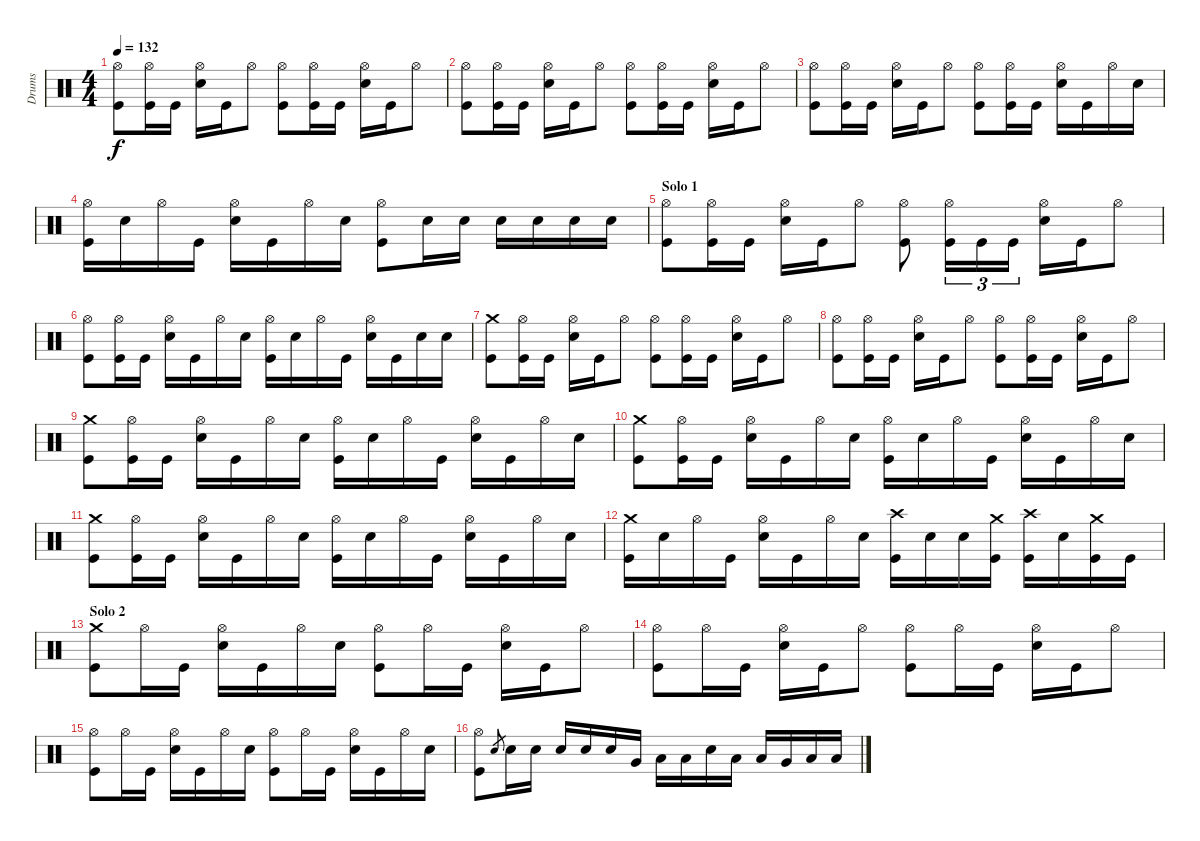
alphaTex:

\track ("Drums" "Drums") {instrument percussion}
\staff {score}
\articulation defaults
\ts (4 4)
\tempo 132
\clef neutral
\ks c
("Hi-Hat (open)" "Kick (hit)").8{dy f} ("Hi-Hat (open)" "Kick (hit)").16 "Kick (hit)".16 ("Hi-Hat (open)" "Snare (hit) 2").16 "Kick (hit)".16 "Hi-Hat (open)".8 ("Hi-Hat (open)" "Kick (hit)").8 ("Hi-Hat (open)" "Kick (hit)").16 "Kick (hit)".16 ("Hi-Hat (open)" "Snare (hit) 2").16 "Kick (hit)".16 "Hi-Hat (open)".8 |
("Hi-Hat (open)" "Kick (hit)").8 ("Hi-Hat (open)" "Kick (hit)").16 "Kick (hit)".16 ("Hi-Hat (open)" "Snare (hit) 2").16 "Kick (hit)".16 "Hi-Hat (open)".8 ("Hi-Hat (open)" "Kick (hit)").8 ("Hi-Hat (open)" "Kick (hit)").16 "Kick (hit)".16 ("Hi-Hat (open)" "Snare (hit) 2").16 "Kick (hit)".16 "Hi-Hat (open)".8 |
("Hi-Hat (open)" "Kick (hit)").8 ("Hi-Hat (open)" "Kick (hit)").16 "Kick (hit)".16 ("Hi-Hat (open)" "Snare (hit) 2").16 "Kick (hit)".16 "Hi-Hat (open)".8 ("Hi-Hat (open)" "Kick (hit)").8 ("Hi-Hat (open)" "Kick (hit)").16 "Kick (hit)".16 ("Hi-Hat (open)" "Snare (hit) 2").16 "Kick (hit)".16 "Hi-Hat (open)".16 "Snare (hit) 2".16 |
("Hi-Hat (open)" "Kick (hit)").16 "Snare (hit) 2".16 "Hi-Hat (open)".16 "Kick (hit)".16 ("Hi-Hat (open)" "Snare (hit) 2").16 "Kick (hit)".16 "Hi-Hat (open)".16 "Snare (hit) 2".16 ("Hi-Hat (open)" "Kick (hit)").8 "Snare (hit) 2".16 "Snare (hit) 2".16 "Snare (hit) 2".16 "Snare (hit) 2".16 "Snare (hit) 2".16 "Snare (hit) 2".16 |
\section ("" "Solo 1")
("Hi-Hat (open)" "Kick (hit)").8 ("Hi-Hat (open)" "Kick (hit)").16 "Kick (hit)".16 ("Hi-Hat (open)" "Snare (hit) 2").16 "Kick (hit)".16 "Hi-Hat (open)".8 ("Hi-Hat (open)" "Kick (hit)").8 ("Hi-Hat (open)" "Kick (hit)").16{tu (3 2)} "Kick (hit)".16{tu (3 2)} "Kick (hit)".16{tu (3 2)} ("Hi-Hat (open)" "Snare (hit) 2").16 "Kick (hit)".16 "Hi-Hat (open)".8 |
("Hi-Hat (open)" "Kick (hit)").8 ("Hi-Hat (open)" "Kick (hit)").16 "Kick (hit)".16 ("Hi-Hat (open)" "Snare (hit) 2").16 "Kick (hit)".16 "Hi-Hat (open)".16 "Snare (hit) 2".16 ("Hi-Hat (open)" "Kick (hit)").16 "Snare (hit) 2".16 "Hi-Hat (open)".16 "Kick (hit)".16 ("Hi-Hat (open)" "Snare (hit) 2").16 "Kick (hit)".16 "Snare (hit) 2".16 "Snare (hit) 2".16 |
("Crash medium (hit)" "Kick (hit)").8 ("Hi-Hat (open)" "Kick (hit)").16 "Kick (hit)".16 ("Hi-Hat (open)" "Snare (hit) 2").16 "Kick (hit)".16 "Hi-Hat (open)".8 ("Hi-Hat (open)" "Kick (hit)").8 ("Hi-Hat (open)" "Kick (hit)").16 "Kick (hit)".16 ("Hi-Hat (open)" "Snare (hit) 2").16 "Kick (hit)".16 "Hi-Hat (open)".8 |
("Hi-Hat (open)" "Kick (hit)").8 ("Hi-Hat (open)" "Kick (hit)").16 "Kick (hit)".16 ("Hi-Hat (open)" "Snare (hit) 2").16 "Kick (hit)".16 "Hi-Hat (open)".8 ("Hi-Hat (open)" "Kick (hit)").8 ("Hi-Hat (open)" "Kick (hit)").16 "Kick (hit)".16 ("Hi-Hat (open)" "Snare (hit) 2").16 "Kick (hit)".16 "Hi-Hat (open)".8 |
("Crash medium (hit)" "Kick (hit)").8 ("Hi-Hat (open)" "Kick (hit)").16 "Kick (hit)".16 ("Hi-Hat (open)" "Snare (hit) 2").16 "Kick (hit)".16 "Hi-Hat (open)".16 "Snare (hit) 2".16 ("Hi-Hat (open)" "Kick (hit)").16 "Snare (hit) 2".16 "Hi-Hat (open)".16 "Kick (hit)".16 ("Hi-Hat (open)" "Snare (hit) 2").16 "Kick (hit)".16 "Hi-Hat (open)".16 "Snare (hit) 2".16 |
("Crash medium (hit)" "Kick (hit)").8 ("Hi-Hat (open)" "Kick (hit)").16 "Kick (hit)".16 ("Hi-Hat (open)" "Snare (hit) 2").16 "Kick (hit)".16 "Hi-Hat (open)".16 "Snare (hit) 2".16 ("Hi-Hat (open)" "Kick (hit)").16 "Snare (hit) 2".16 "Hi-Hat (open)".16 "Kick (hit)".16 ("Hi-Hat (open)" "Snare (hit) 2").16 "Kick (hit)".16 "Hi-Hat (open)".16 "Snare (hit) 2".16 |
("Crash medium (hit)" "Kick (hit)").8 ("Hi-Hat (open)" "Kick (hit)").16 "Kick (hit)".16 ("Hi-Hat (open)" "Snare (hit) 2").16 "Kick (hit)".16 "Hi-Hat (open)".16 "Snare (hit) 2".16 ("Hi-Hat (open)" "Kick (hit)").16 "Snare (hit) 2".16 "Hi-Hat (open)".16 "Kick (hit)".16 ("Hi-Hat (open)" "Snare (hit) 2").16 "Kick (hit)".16 "Hi-Hat (open)".16 "Snare (hit) 2".16 |
("Crash medium (hit)" "Kick (hit)").16 "Snare (hit) 2".16 "Hi-Hat (open)".16 "Kick (hit)".16 ("Hi-Hat (open)" "Snare (hit) 2").16 "Kick (hit)".16 "Hi-Hat (open)".16 "Snare (hit) 2".16 ("Crash high (hit)" "Kick (hit)").16 "Snare (hit) 2".16 "Snare (hit) 2".16 ("Crash medium (hit)" "Kick (hit)").16 ("Crash high (hit)" "Kick (hit)").16 "Snare (hit) 2".16 ("Crash medium (hit)" "Kick (hit)").16 "Kick (hit)".16 |
\section ("" "Solo 2")
("Crash medium (hit)" "Kick (hit)").8 "Hi-Hat (open)".16 "Kick (hit)".16 ("Hi-Hat (open)" "Snare (hit) 2").16 "Kick (hit)".16 "Hi-Hat (open)".16 "Snare (hit) 2".16 ("Hi-Hat (open)" "Kick (hit)").8 "Hi-Hat (open)".16 "Kick (hit)".16 ("Hi-Hat (open)" "Snare (hit) 2").16 "Kick (hit)".16 "Hi-Hat (open)".8 |
("Hi-Hat (open)" "Kick (hit)").8 "Hi-Hat (open)".16 "Kick (hit)".16 ("Hi-Hat (open)" "Snare (hit) 2").16 "Kick (hit)".16 "Hi-Hat (open)".8 ("Hi-Hat (open)" "Kick (hit)").8 "Hi-Hat (open)".16 "Kick (hit)".16 ("Hi-Hat (open)" "Snare (hit) 2").16 "Kick (hit)".16 "Hi-Hat (open)".8 |
("Hi-Hat (open)" "Kick (hit)").8 "Hi-Hat (open)".16 "Kick (hit)".16 ("Hi-Hat (open)" "Snare (hit) 2").16 "Kick (hit)".16 "Hi-Hat (open)".16 "Snare (hit) 2".16 ("Hi-Hat (open)" "Kick (hit)").8 "Hi-Hat (open)".16 "Kick (hit)".16 ("Hi-Hat (open)" "Snare (hit) 2").16 "Kick (hit)".16 "Hi-Hat (open)".16 "Snare (hit) 2".16 |
("Hi-Hat (open)" "Kick (hit)").8 "Snare (hit) 2".8{gr} "Snare (hit) 2".16 "Snare (hit) 2".16 "Snare (hit) 2".16 "Snare (hit) 2".16 "Snare (hit) 2".16 "Very Low Tom (hit)".16 "Low Tom (hit)".16 "Low Tom (hit)".16 "Snare (hit) 2".16 "Low Tom (hit)".16 "Low Tom (hit)".16 "Very Low Tom (hit)".16 "Low Floor Tom (hit)".16 "Low Floor Tom (hit)".16
